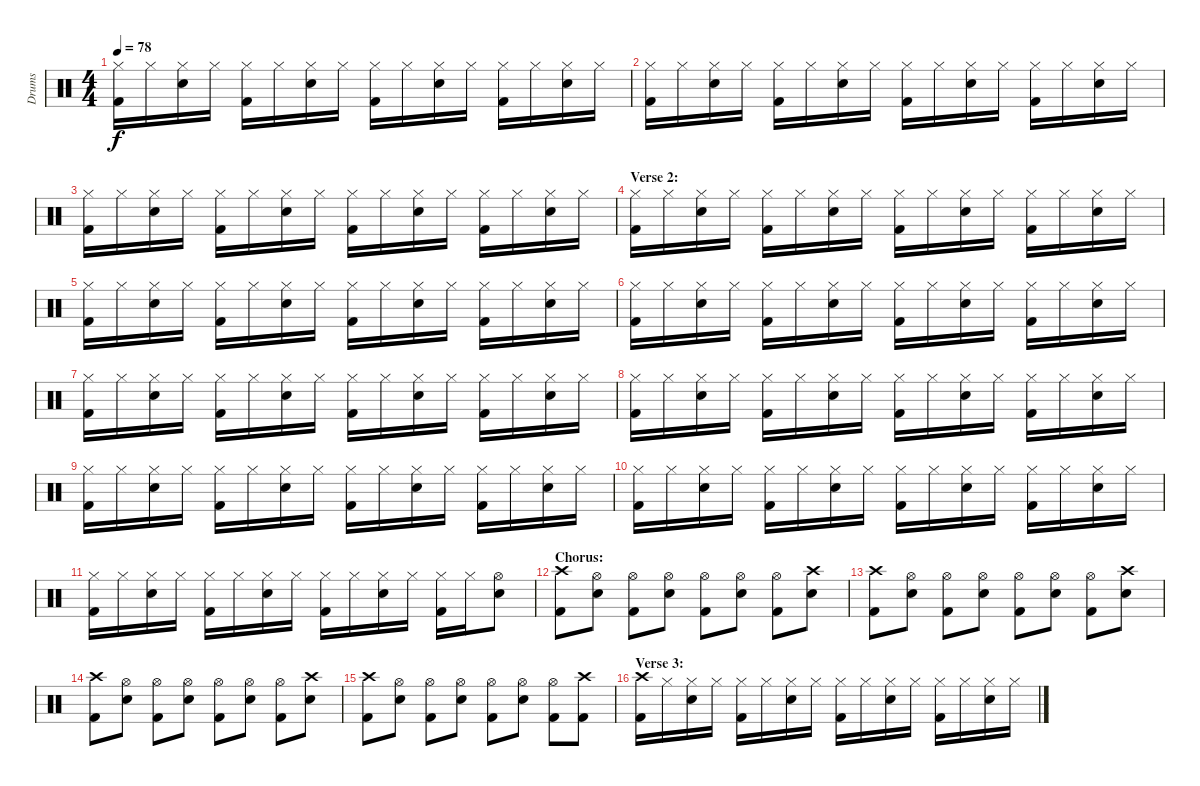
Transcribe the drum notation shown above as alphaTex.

\track ("Drums" "Drums") {instrument percussion}
\staff {score}
\articulation defaults
\ts (4 4)
\tempo 78
\clef neutral
\ks c
("Hi-Hat (closed)" "Kick (hit) 2").16{dy f} "Hi-Hat (closed)".16 ("Hi-Hat (closed)" "Snare (hit) 2").16 "Hi-Hat (closed)".16 ("Hi-Hat (closed)" "Kick (hit) 2").16 "Hi-Hat (closed)".16 ("Hi-Hat (closed)" "Snare (hit) 2").16 "Hi-Hat (closed)".16 ("Hi-Hat (closed)" "Kick (hit) 2").16 "Hi-Hat (closed)".16 ("Hi-Hat (closed)" "Snare (hit) 2").16 "Hi-Hat (closed)".16 ("Hi-Hat (closed)" "Kick (hit) 2").16 "Hi-Hat (closed)".16 ("Hi-Hat (closed)" "Snare (hit) 2").16 "Hi-Hat (closed)".16 |
("Hi-Hat (closed)" "Kick (hit) 2").16 "Hi-Hat (closed)".16 ("Hi-Hat (closed)" "Snare (hit) 2").16 "Hi-Hat (closed)".16 ("Hi-Hat (closed)" "Kick (hit) 2").16 "Hi-Hat (closed)".16 ("Hi-Hat (closed)" "Snare (hit) 2").16 "Hi-Hat (closed)".16 ("Hi-Hat (closed)" "Kick (hit) 2").16 "Hi-Hat (closed)".16 ("Hi-Hat (closed)" "Snare (hit) 2").16 "Hi-Hat (closed)".16 ("Hi-Hat (closed)" "Kick (hit) 2").16 "Hi-Hat (closed)".16 ("Hi-Hat (closed)" "Snare (hit) 2").16 "Hi-Hat (closed)".16 |
("Hi-Hat (closed)" "Kick (hit) 2").16 "Hi-Hat (closed)".16 ("Hi-Hat (closed)" "Snare (hit) 2").16 "Hi-Hat (closed)".16 ("Hi-Hat (closed)" "Kick (hit) 2").16 "Hi-Hat (closed)".16 ("Hi-Hat (closed)" "Snare (hit) 2").16 "Hi-Hat (closed)".16 ("Hi-Hat (closed)" "Kick (hit) 2").16 "Hi-Hat (closed)".16 ("Hi-Hat (closed)" "Snare (hit) 2").16 "Hi-Hat (closed)".16 ("Hi-Hat (closed)" "Kick (hit) 2").16 "Hi-Hat (closed)".16 ("Hi-Hat (closed)" "Snare (hit) 2").16 "Hi-Hat (closed)".16 |
\section ("" "Verse 2:")
("Hi-Hat (closed)" "Kick (hit) 2").16 "Hi-Hat (closed)".16 ("Hi-Hat (closed)" "Snare (hit) 2").16 "Hi-Hat (closed)".16 ("Hi-Hat (closed)" "Kick (hit) 2").16 "Hi-Hat (closed)".16 ("Hi-Hat (closed)" "Snare (hit) 2").16 "Hi-Hat (closed)".16 ("Hi-Hat (closed)" "Kick (hit) 2").16 "Hi-Hat (closed)".16 ("Hi-Hat (closed)" "Snare (hit) 2").16 "Hi-Hat (closed)".16 ("Hi-Hat (closed)" "Kick (hit) 2").16 "Hi-Hat (closed)".16 ("Hi-Hat (closed)" "Snare (hit) 2").16 "Hi-Hat (closed)".16 |
("Hi-Hat (closed)" "Kick (hit) 2").16 "Hi-Hat (closed)".16 ("Hi-Hat (closed)" "Snare (hit) 2").16 "Hi-Hat (closed)".16 ("Hi-Hat (closed)" "Kick (hit) 2").16 "Hi-Hat (closed)".16 ("Hi-Hat (closed)" "Snare (hit) 2").16 "Hi-Hat (closed)".16 ("Hi-Hat (closed)" "Kick (hit) 2").16 "Hi-Hat (closed)".16 ("Hi-Hat (closed)" "Snare (hit) 2").16 "Hi-Hat (closed)".16 ("Hi-Hat (closed)" "Kick (hit) 2").16 "Hi-Hat (closed)".16 ("Hi-Hat (closed)" "Snare (hit) 2").16 "Hi-Hat (closed)".16 |
("Hi-Hat (closed)" "Kick (hit) 2").16 "Hi-Hat (closed)".16 ("Hi-Hat (closed)" "Snare (hit) 2").16 "Hi-Hat (closed)".16 ("Hi-Hat (closed)" "Kick (hit) 2").16 "Hi-Hat (closed)".16 ("Hi-Hat (closed)" "Snare (hit) 2").16 "Hi-Hat (closed)".16 ("Hi-Hat (closed)" "Kick (hit) 2").16 "Hi-Hat (closed)".16 ("Hi-Hat (closed)" "Snare (hit) 2").16 "Hi-Hat (closed)".16 ("Hi-Hat (closed)" "Kick (hit) 2").16 "Hi-Hat (closed)".16 ("Hi-Hat (closed)" "Snare (hit) 2").16 "Hi-Hat (closed)".16 |
("Hi-Hat (closed)" "Kick (hit) 2").16 "Hi-Hat (closed)".16 ("Hi-Hat (closed)" "Snare (hit) 2").16 "Hi-Hat (closed)".16 ("Hi-Hat (closed)" "Kick (hit) 2").16 "Hi-Hat (closed)".16 ("Hi-Hat (closed)" "Snare (hit) 2").16 "Hi-Hat (closed)".16 ("Hi-Hat (closed)" "Kick (hit) 2").16 "Hi-Hat (closed)".16 ("Hi-Hat (closed)" "Snare (hit) 2").16 "Hi-Hat (closed)".16 ("Hi-Hat (closed)" "Kick (hit) 2").16 "Hi-Hat (closed)".16 ("Hi-Hat (closed)" "Snare (hit) 2").16 "Hi-Hat (closed)".16 |
("Hi-Hat (closed)" "Kick (hit) 2").16 "Hi-Hat (closed)".16 ("Hi-Hat (closed)" "Snare (hit) 2").16 "Hi-Hat (closed)".16 ("Hi-Hat (closed)" "Kick (hit) 2").16 "Hi-Hat (closed)".16 ("Hi-Hat (closed)" "Snare (hit) 2").16 "Hi-Hat (closed)".16 ("Hi-Hat (closed)" "Kick (hit) 2").16 "Hi-Hat (closed)".16 ("Hi-Hat (closed)" "Snare (hit) 2").16 "Hi-Hat (closed)".16 ("Hi-Hat (closed)" "Kick (hit) 2").16 "Hi-Hat (closed)".16 ("Hi-Hat (closed)" "Snare (hit) 2").16 "Hi-Hat (closed)".16 |
("Hi-Hat (closed)" "Kick (hit) 2").16 "Hi-Hat (closed)".16 ("Hi-Hat (closed)" "Snare (hit) 2").16 "Hi-Hat (closed)".16 ("Hi-Hat (closed)" "Kick (hit) 2").16 "Hi-Hat (closed)".16 ("Hi-Hat (closed)" "Snare (hit) 2").16 "Hi-Hat (closed)".16 ("Hi-Hat (closed)" "Kick (hit) 2").16 "Hi-Hat (closed)".16 ("Hi-Hat (closed)" "Snare (hit) 2").16 "Hi-Hat (closed)".16 ("Hi-Hat (closed)" "Kick (hit) 2").16 "Hi-Hat (closed)".16 ("Hi-Hat (closed)" "Snare (hit) 2").16 "Hi-Hat (closed)".16 |
("Hi-Hat (closed)" "Kick (hit) 2").16 "Hi-Hat (closed)".16 ("Hi-Hat (closed)" "Snare (hit) 2").16 "Hi-Hat (closed)".16 ("Hi-Hat (closed)" "Kick (hit) 2").16 "Hi-Hat (closed)".16 ("Hi-Hat (closed)" "Snare (hit) 2").16 "Hi-Hat (closed)".16 ("Hi-Hat (closed)" "Kick (hit) 2").16 "Hi-Hat (closed)".16 ("Hi-Hat (closed)" "Snare (hit) 2").16 "Hi-Hat (closed)".16 ("Hi-Hat (closed)" "Kick (hit) 2").16 "Hi-Hat (closed)".16 ("Hi-Hat (closed)" "Snare (hit) 2").16 "Hi-Hat (closed)".16 |
("Hi-Hat (closed)" "Kick (hit) 2").16 "Hi-Hat (closed)".16 ("Hi-Hat (closed)" "Snare (hit) 2").16 "Hi-Hat (closed)".16 ("Hi-Hat (closed)" "Kick (hit) 2").16 "Hi-Hat (closed)".16 ("Hi-Hat (closed)" "Snare (hit) 2").16 "Hi-Hat (closed)".16 ("Hi-Hat (closed)" "Kick (hit) 2").16 "Hi-Hat (closed)".16 ("Hi-Hat (closed)" "Snare (hit) 2").16 "Hi-Hat (closed)".16 ("Hi-Hat (closed)" "Kick (hit) 2").16 "Hi-Hat (closed)".16 ("Hi-Hat (open)" "Snare (hit) 2").8 |
\section ("" "Chorus:")
("Crash high (hit)" "Kick (hit) 2").8 ("Hi-Hat (open)" "Snare (hit) 2").8 ("Hi-Hat (open)" "Kick (hit) 2").8 ("Hi-Hat (open)" "Snare (hit) 2").8 ("Hi-Hat (open)" "Kick (hit) 2").8 ("Hi-Hat (open)" "Snare (hit) 2").8 ("Hi-Hat (open)" "Kick (hit) 2").8 ("Crash high (hit)" "Snare (hit) 2").8 |
("Crash high (hit)" "Kick (hit) 2").8 ("Hi-Hat (open)" "Snare (hit) 2").8 ("Hi-Hat (open)" "Kick (hit) 2").8 ("Hi-Hat (open)" "Snare (hit) 2").8 ("Hi-Hat (open)" "Kick (hit) 2").8 ("Hi-Hat (open)" "Snare (hit) 2").8 ("Hi-Hat (open)" "Kick (hit) 2").8 ("Crash high (hit)" "Snare (hit) 2").8 |
("Crash high (hit)" "Kick (hit) 2").8 ("Hi-Hat (open)" "Snare (hit) 2").8 ("Hi-Hat (open)" "Kick (hit) 2").8 ("Hi-Hat (open)" "Snare (hit) 2").8 ("Hi-Hat (open)" "Kick (hit) 2").8 ("Hi-Hat (open)" "Snare (hit) 2").8 ("Hi-Hat (open)" "Kick (hit) 2").8 ("Crash high (hit)" "Snare (hit) 2").8 |
("Crash high (hit)" "Kick (hit) 2").8 ("Hi-Hat (open)" "Snare (hit) 2").8 ("Hi-Hat (open)" "Kick (hit) 2").8 ("Hi-Hat (open)" "Snare (hit) 2").8 ("Hi-Hat (open)" "Kick (hit) 2").8 ("Hi-Hat (open)" "Snare (hit) 2").8 ("Hi-Hat (open)" "Kick (hit) 2").8 ("Crash high (hit)" "Kick (hit) 2").8 |
\section ("" "Verse 3:")
("Crash high (hit)" "Kick (hit) 2").16 "Hi-Hat (closed)".16 ("Hi-Hat (closed)" "Snare (hit) 2").16 "Hi-Hat (closed)".16 ("Hi-Hat (closed)" "Kick (hit) 2").16 "Hi-Hat (closed)".16 ("Hi-Hat (closed)" "Snare (hit) 2").16 "Hi-Hat (closed)".16 ("Hi-Hat (closed)" "Kick (hit) 2").16 "Hi-Hat (closed)".16 ("Hi-Hat (closed)" "Snare (hit) 2").16 "Hi-Hat (closed)".16 ("Hi-Hat (closed)" "Kick (hit) 2").16 "Hi-Hat (closed)".16 ("Hi-Hat (closed)" "Snare (hit) 2").16 "Hi-Hat (closed)".16
